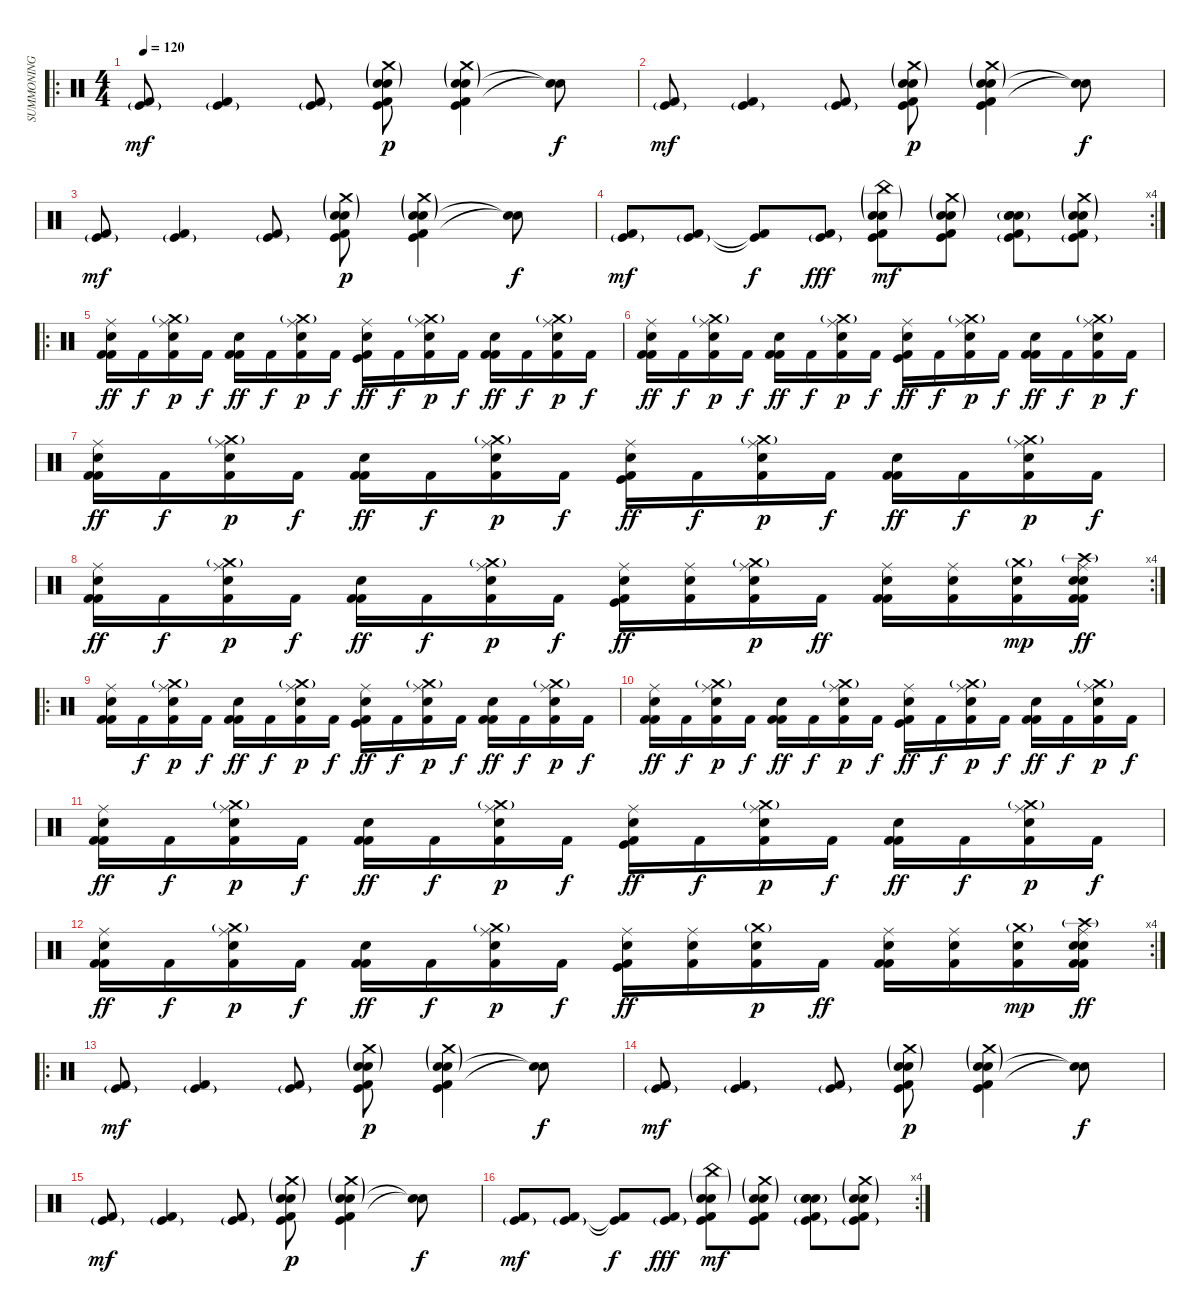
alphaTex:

\track ("SUMMONING" "SUMMONING") {instrument percussion}
\staff {score}
\articulation defaults
\ro
\ts (4 4)
\tempo 120
\clef neutral
\ks c
("Kick (hit) 2" "Kick (hit)"{g}).8{dy mf} ("Kick (hit) 2" "Kick (hit)"{g}).4 ("Kick (hit) 2" "Kick (hit)"{g}).8 ("Snare (hit) 2"{g} "Kick (hit) 2" "Electric Snare (hit)"{g} "Kick (hit)" "Crash medium (hit)"{g}).8{dy p} ("Snare (hit) 2"{g} "Kick (hit) 2" "Electric Snare (hit)"{g} "Kick (hit)" "Crash medium (hit)"{g}).4 ("Snare (hit)"{t} "Snare (hit)"{t}).8{dy f} |
("Kick (hit) 2" "Kick (hit)"{g}).8{dy mf} ("Kick (hit) 2" "Kick (hit)"{g}).4 ("Kick (hit) 2" "Kick (hit)"{g}).8 ("Snare (hit) 2"{g} "Kick (hit) 2" "Electric Snare (hit)"{g} "Kick (hit)" "Crash medium (hit)"{g}).8{dy p} ("Snare (hit) 2"{g} "Kick (hit) 2" "Electric Snare (hit)"{g} "Kick (hit)" "Crash medium (hit)"{g}).4 ("Snare (hit)"{t} "Snare (hit)"{t}).8{dy f} |
("Kick (hit) 2" "Kick (hit)"{g}).8{dy mf} ("Kick (hit) 2" "Kick (hit)"{g}).4 ("Kick (hit) 2" "Kick (hit)"{g}).8 ("Snare (hit) 2"{g} "Kick (hit) 2" "Electric Snare (hit)"{g} "Kick (hit)" "Crash medium (hit)"{g}).8{dy p} ("Snare (hit) 2"{g} "Kick (hit) 2" "Electric Snare (hit)"{g} "Kick (hit)" "Crash medium (hit)"{g}).4 ("Snare (hit)"{t} "Snare (hit)"{t}).8{dy f} |
\rc 4
("Kick (hit) 2" "Kick (hit)"{g}).8{dy mf} ("Kick (hit) 2" "Kick (hit)"{g}).8 ("Kick (hit) 2"{t} "Kick (hit)"{t}).8{dy f} ("Kick (hit)"{g} "Kick (hit) 2").8{dy fff} ("Snare (hit) 2"{g} "Kick (hit) 2" "Electric Snare (hit)"{g} "Kick (hit)" "China (hit)"{g}).8{dy mf} ("Snare (hit) 2"{g} "Electric Snare (hit)"{g} "Kick (hit) 2" "Kick (hit)" "Crash medium (hit)"{g}).8 ("Snare (hit) 2"{g} "Electric Snare (hit)"{g} "Kick (hit) 2" "Kick (hit)"{g} "Snare (hit) 2"{g}).8 ("Crash medium (hit)"{g} "Electric Snare (hit)"{g} "Kick (hit) 2" "Kick (hit)"{g} "Snare (hit) 2"{g}).8 |
\ro
("Electric Snare (hit)" "Ride (middle)" "Kick (hit) 2" "Kick (hit) 2").16{dy ff} "Kick (hit) 2".16{dy f} ("Snare (hit) 2" "Crash medium (hit)"{g} "Ride (middle)" "Kick (hit) 2").16{dy p} "Kick (hit) 2".16{dy f} ("Electric Snare (hit)" "Kick (hit) 2" "Kick (hit) 2").16{dy ff} "Kick (hit) 2".16{dy f} ("Snare (hit) 2" "Crash medium (hit)"{g} "Ride (middle)" "Kick (hit) 2").16{dy p} "Kick (hit) 2".16{dy f} ("Electric Snare (hit)" "Ride (middle)" "Kick (hit)" "Kick (hit) 2").16{dy ff} "Kick (hit) 2".16{dy f} ("Snare (hit) 2" "Crash medium (hit)"{g} "Ride (middle)" "Kick (hit) 2").16{dy p} "Kick (hit) 2".16{dy f} ("Electric Snare (hit)" "Kick (hit) 2" "Kick (hit) 2").16{dy ff} "Kick (hit) 2".16{dy f} ("Snare (hit) 2" "Crash medium (hit)"{g} "Ride (middle)" "Kick (hit) 2").16{dy p} "Kick (hit) 2".16{dy f} |
("Electric Snare (hit)" "Ride (middle)" "Kick (hit) 2" "Kick (hit) 2").16{dy ff} "Kick (hit) 2".16{dy f} ("Snare (hit) 2" "Crash medium (hit)"{g} "Ride (middle)" "Kick (hit) 2").16{dy p} "Kick (hit) 2".16{dy f} ("Electric Snare (hit)" "Kick (hit) 2" "Kick (hit) 2").16{dy ff} "Kick (hit) 2".16{dy f} ("Snare (hit) 2" "Crash medium (hit)"{g} "Ride (middle)" "Kick (hit) 2").16{dy p} "Kick (hit) 2".16{dy f} ("Electric Snare (hit)" "Ride (middle)" "Kick (hit)" "Kick (hit) 2").16{dy ff} "Kick (hit) 2".16{dy f} ("Snare (hit) 2" "Crash medium (hit)"{g} "Ride (middle)" "Kick (hit) 2").16{dy p} "Kick (hit) 2".16{dy f} ("Electric Snare (hit)" "Kick (hit) 2" "Kick (hit) 2").16{dy ff} "Kick (hit) 2".16{dy f} ("Snare (hit) 2" "Crash medium (hit)"{g} "Ride (middle)" "Kick (hit) 2").16{dy p} "Kick (hit) 2".16{dy f} |
("Electric Snare (hit)" "Ride (middle)" "Kick (hit) 2" "Kick (hit) 2").16{dy ff} "Kick (hit) 2".16{dy f} ("Snare (hit) 2" "Crash medium (hit)"{g} "Ride (middle)" "Kick (hit) 2").16{dy p} "Kick (hit) 2".16{dy f} ("Electric Snare (hit)" "Kick (hit) 2" "Kick (hit) 2").16{dy ff} "Kick (hit) 2".16{dy f} ("Snare (hit) 2" "Crash medium (hit)"{g} "Ride (middle)" "Kick (hit) 2").16{dy p} "Kick (hit) 2".16{dy f} ("Electric Snare (hit)" "Ride (middle)" "Kick (hit)" "Kick (hit) 2").16{dy ff} "Kick (hit) 2".16{dy f} ("Snare (hit) 2" "Crash medium (hit)"{g} "Ride (middle)" "Kick (hit) 2").16{dy p} "Kick (hit) 2".16{dy f} ("Electric Snare (hit)" "Kick (hit) 2" "Kick (hit) 2").16{dy ff} "Kick (hit) 2".16{dy f} ("Snare (hit) 2" "Crash medium (hit)"{g} "Ride (middle)" "Kick (hit) 2").16{dy p} "Kick (hit) 2".16{dy f} |
\rc 4
("Electric Snare (hit)" "Ride (middle)" "Kick (hit) 2" "Kick (hit) 2").16{dy ff} "Kick (hit) 2".16{dy f} ("Snare (hit) 2" "Crash medium (hit)"{g} "Ride (middle)" "Kick (hit) 2").16{dy p} "Kick (hit) 2".16{dy f} ("Electric Snare (hit)" "Kick (hit) 2" "Kick (hit) 2").16{dy ff} "Kick (hit) 2".16{dy f} ("Snare (hit) 2" "Crash medium (hit)"{g} "Ride (middle)" "Kick (hit) 2").16{dy p} "Kick (hit) 2".16{dy f} ("Electric Snare (hit)" "Ride (middle)" "Kick (hit)" "Kick (hit) 2").16{dy ff} ("Electric Snare (hit)" "Ride (middle)" "Kick (hit) 2").16 ("Snare (hit) 2" "Crash medium (hit)"{g} "Ride (middle)" "Kick (hit) 2").16{dy p} "Kick (hit) 2".16{dy ff} ("Electric Snare (hit)" "Ride (middle)" "Kick (hit) 2" "Kick (hit) 2").16 ("Electric Snare (hit)" "Ride (middle)" "Kick (hit) 2").16 ("Snare (hit) 2" "Crash medium (hit)"{g} "Kick (hit) 2").16{dy mp} ("Snare (hit) 2" "Crash high (hit)"{g} "Electric Snare (hit)" "Ride (middle)" "Kick (hit) 2" "Kick (hit) 2").16{dy ff} |
\ro
("Electric Snare (hit)" "Ride (middle)" "Kick (hit) 2" "Kick (hit) 2").16 "Kick (hit) 2".16{dy f} ("Snare (hit) 2" "Crash medium (hit)"{g} "Ride (middle)" "Kick (hit) 2").16{dy p} "Kick (hit) 2".16{dy f} ("Electric Snare (hit)" "Kick (hit) 2" "Kick (hit) 2").16{dy ff} "Kick (hit) 2".16{dy f} ("Snare (hit) 2" "Crash medium (hit)"{g} "Ride (middle)" "Kick (hit) 2").16{dy p} "Kick (hit) 2".16{dy f} ("Electric Snare (hit)" "Ride (middle)" "Kick (hit)" "Kick (hit) 2").16{dy ff} "Kick (hit) 2".16{dy f} ("Snare (hit) 2" "Crash medium (hit)"{g} "Ride (middle)" "Kick (hit) 2").16{dy p} "Kick (hit) 2".16{dy f} ("Electric Snare (hit)" "Kick (hit) 2" "Kick (hit) 2").16{dy ff} "Kick (hit) 2".16{dy f} ("Snare (hit) 2" "Crash medium (hit)"{g} "Ride (middle)" "Kick (hit) 2").16{dy p} "Kick (hit) 2".16{dy f} |
("Electric Snare (hit)" "Ride (middle)" "Kick (hit) 2" "Kick (hit) 2").16{dy ff} "Kick (hit) 2".16{dy f} ("Snare (hit) 2" "Crash medium (hit)"{g} "Ride (middle)" "Kick (hit) 2").16{dy p} "Kick (hit) 2".16{dy f} ("Electric Snare (hit)" "Kick (hit) 2" "Kick (hit) 2").16{dy ff} "Kick (hit) 2".16{dy f} ("Snare (hit) 2" "Crash medium (hit)"{g} "Ride (middle)" "Kick (hit) 2").16{dy p} "Kick (hit) 2".16{dy f} ("Electric Snare (hit)" "Ride (middle)" "Kick (hit)" "Kick (hit) 2").16{dy ff} "Kick (hit) 2".16{dy f} ("Snare (hit) 2" "Crash medium (hit)"{g} "Ride (middle)" "Kick (hit) 2").16{dy p} "Kick (hit) 2".16{dy f} ("Electric Snare (hit)" "Kick (hit) 2" "Kick (hit) 2").16{dy ff} "Kick (hit) 2".16{dy f} ("Snare (hit) 2" "Crash medium (hit)"{g} "Ride (middle)" "Kick (hit) 2").16{dy p} "Kick (hit) 2".16{dy f} |
("Electric Snare (hit)" "Ride (middle)" "Kick (hit) 2" "Kick (hit) 2").16{dy ff} "Kick (hit) 2".16{dy f} ("Snare (hit) 2" "Crash medium (hit)"{g} "Ride (middle)" "Kick (hit) 2").16{dy p} "Kick (hit) 2".16{dy f} ("Electric Snare (hit)" "Kick (hit) 2" "Kick (hit) 2").16{dy ff} "Kick (hit) 2".16{dy f} ("Snare (hit) 2" "Crash medium (hit)"{g} "Ride (middle)" "Kick (hit) 2").16{dy p} "Kick (hit) 2".16{dy f} ("Electric Snare (hit)" "Ride (middle)" "Kick (hit)" "Kick (hit) 2").16{dy ff} "Kick (hit) 2".16{dy f} ("Snare (hit) 2" "Crash medium (hit)"{g} "Ride (middle)" "Kick (hit) 2").16{dy p} "Kick (hit) 2".16{dy f} ("Electric Snare (hit)" "Kick (hit) 2" "Kick (hit) 2").16{dy ff} "Kick (hit) 2".16{dy f} ("Snare (hit) 2" "Crash medium (hit)"{g} "Ride (middle)" "Kick (hit) 2").16{dy p} "Kick (hit) 2".16{dy f} |
\rc 4
("Electric Snare (hit)" "Ride (middle)" "Kick (hit) 2" "Kick (hit) 2").16{dy ff} "Kick (hit) 2".16{dy f} ("Snare (hit) 2" "Crash medium (hit)"{g} "Ride (middle)" "Kick (hit) 2").16{dy p} "Kick (hit) 2".16{dy f} ("Electric Snare (hit)" "Kick (hit) 2" "Kick (hit) 2").16{dy ff} "Kick (hit) 2".16{dy f} ("Snare (hit) 2" "Crash medium (hit)"{g} "Ride (middle)" "Kick (hit) 2").16{dy p} "Kick (hit) 2".16{dy f} ("Electric Snare (hit)" "Ride (middle)" "Kick (hit)" "Kick (hit) 2").16{dy ff} ("Electric Snare (hit)" "Ride (middle)" "Kick (hit) 2").16 ("Snare (hit) 2" "Crash medium (hit)"{g} "Kick (hit) 2").16{dy p} "Kick (hit) 2".16{dy ff} ("Electric Snare (hit)" "Ride (middle)" "Kick (hit) 2" "Kick (hit) 2").16 ("Electric Snare (hit)" "Ride (middle)" "Kick (hit) 2").16 ("Snare (hit) 2" "Crash medium (hit)"{g} "Kick (hit) 2").16{dy mp} ("Snare (hit) 2" "Crash high (hit)"{g} "Electric Snare (hit)" "Ride (middle)" "Kick (hit) 2" "Kick (hit) 2").16{dy ff} |
\ro
("Kick (hit) 2" "Kick (hit)"{g}).8{dy mf} ("Kick (hit) 2" "Kick (hit)"{g}).4 ("Kick (hit) 2" "Kick (hit)"{g}).8 ("Snare (hit) 2"{g} "Kick (hit) 2" "Electric Snare (hit)"{g} "Kick (hit)" "Crash medium (hit)"{g}).8{dy p} ("Snare (hit) 2"{g} "Kick (hit) 2" "Electric Snare (hit)"{g} "Kick (hit)" "Crash medium (hit)"{g}).4 ("Snare (hit)"{t} "Snare (hit)"{t}).8{dy f} |
("Kick (hit) 2" "Kick (hit)"{g}).8{dy mf} ("Kick (hit) 2" "Kick (hit)"{g}).4 ("Kick (hit) 2" "Kick (hit)"{g}).8 ("Snare (hit) 2"{g} "Kick (hit) 2" "Electric Snare (hit)"{g} "Kick (hit)" "Crash medium (hit)"{g}).8{dy p} ("Snare (hit) 2"{g} "Kick (hit) 2" "Electric Snare (hit)"{g} "Kick (hit)" "Crash medium (hit)"{g}).4 ("Snare (hit)"{t} "Snare (hit)"{t}).8{dy f} |
("Kick (hit) 2" "Kick (hit)"{g}).8{dy mf} ("Kick (hit) 2" "Kick (hit)"{g}).4 ("Kick (hit) 2" "Kick (hit)"{g}).8 ("Snare (hit) 2"{g} "Kick (hit) 2" "Electric Snare (hit)"{g} "Kick (hit)" "Crash medium (hit)"{g}).8{dy p} ("Snare (hit) 2"{g} "Kick (hit) 2" "Electric Snare (hit)"{g} "Kick (hit)" "Crash medium (hit)"{g}).4 ("Snare (hit)"{t} "Snare (hit)"{t}).8{dy f} |
\rc 4
("Kick (hit) 2" "Kick (hit)"{g}).8{dy mf} ("Kick (hit) 2" "Kick (hit)"{g}).8 ("Kick (hit) 2"{t} "Kick (hit)"{t}).8{dy f} ("Kick (hit)"{g} "Kick (hit) 2").8{dy fff} ("Snare (hit) 2"{g} "Kick (hit) 2" "Electric Snare (hit)"{g} "Kick (hit)" "China (hit)"{g}).8{dy mf} ("Snare (hit) 2"{g} "Electric Snare (hit)"{g} "Kick (hit) 2" "Kick (hit)" "Crash medium (hit)"{g}).8 ("Snare (hit) 2"{g} "Electric Snare (hit)"{g} "Kick (hit) 2" "Kick (hit)"{g} "Snare (hit) 2"{g}).8 ("Crash medium (hit)"{g} "Electric Snare (hit)"{g} "Kick (hit) 2" "Kick (hit)"{g} "Snare (hit) 2"{g}).8
